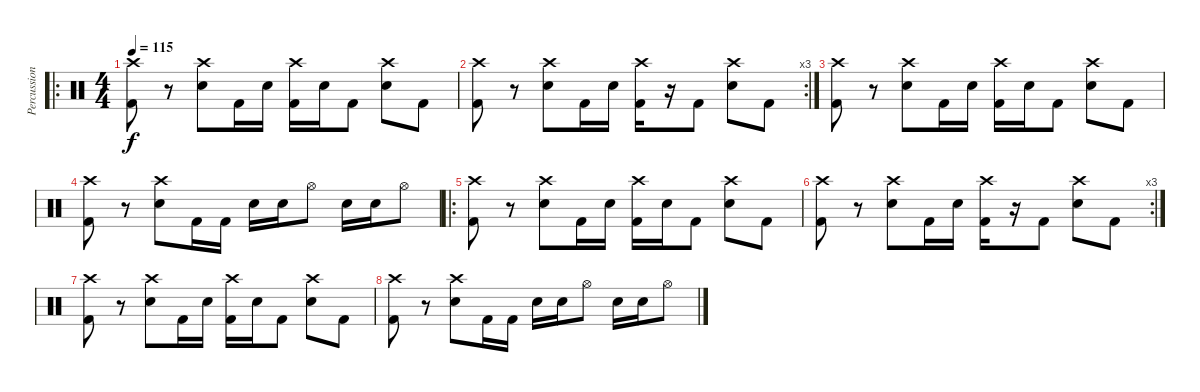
\track ("Percussions" "Percussion") {instrument percussion}
\staff {score}
\articulation defaults
\ro
\ts (4 4)
\tempo 115
\clef neutral
\ks c
("Crash high (hit)" "Kick (hit) 2").8{dy f} r.8 ("Crash high (hit)" "Snare (hit) 2").8 "Kick (hit) 2".16 "Snare (hit) 2".16 ("Crash high (hit)" "Kick (hit) 2").16 "Snare (hit) 2".16 "Kick (hit) 2".8 ("Crash high (hit)" "Snare (hit) 2").8 "Kick (hit) 2".8 |
\rc 3
("Crash high (hit)" "Kick (hit) 2").8 r.8 ("Crash high (hit)" "Snare (hit) 2").8 "Kick (hit) 2".16 "Snare (hit) 2".16 ("Crash high (hit)" "Kick (hit) 2").16 r.16 "Kick (hit) 2".8 ("Crash high (hit)" "Snare (hit) 2").8 "Kick (hit) 2".8 |
("Crash high (hit)" "Kick (hit) 2").8 r.8 ("Crash high (hit)" "Snare (hit) 2").8 "Kick (hit) 2".16 "Snare (hit) 2".16 ("Crash high (hit)" "Kick (hit) 2").16 "Snare (hit) 2".16 "Kick (hit) 2".8 ("Crash high (hit)" "Snare (hit) 2").8 "Kick (hit) 2".8 |
("Crash high (hit)" "Kick (hit) 2").8 r.8 ("Crash high (hit)" "Snare (hit) 2").8 "Kick (hit) 2".16 "Kick (hit) 2".16 "Snare (hit) 2".16 "Snare (hit) 2".16 "Hi-Hat (open)".8 "Snare (hit) 2".16 "Snare (hit) 2".16 "Hi-Hat (open)".8 |
\ro
("Crash high (hit)" "Kick (hit) 2").8 r.8 ("Crash high (hit)" "Snare (hit) 2").8 "Kick (hit) 2".16 "Snare (hit) 2".16 ("Crash high (hit)" "Kick (hit) 2").16 "Snare (hit) 2".16 "Kick (hit) 2".8 ("Crash high (hit)" "Snare (hit) 2").8 "Kick (hit) 2".8 |
\rc 3
("Crash high (hit)" "Kick (hit) 2").8 r.8 ("Crash high (hit)" "Snare (hit) 2").8 "Kick (hit) 2".16 "Snare (hit) 2".16 ("Crash high (hit)" "Kick (hit) 2").16 r.16 "Kick (hit) 2".8 ("Crash high (hit)" "Snare (hit) 2").8 "Kick (hit) 2".8 |
("Crash high (hit)" "Kick (hit) 2").8 r.8 ("Crash high (hit)" "Snare (hit) 2").8 "Kick (hit) 2".16 "Snare (hit) 2".16 ("Crash high (hit)" "Kick (hit) 2").16 "Snare (hit) 2".16 "Kick (hit) 2".8 ("Crash high (hit)" "Snare (hit) 2").8 "Kick (hit) 2".8 |
("Crash high (hit)" "Kick (hit) 2").8 r.8 ("Crash high (hit)" "Snare (hit) 2").8 "Kick (hit) 2".16 "Kick (hit) 2".16 "Snare (hit) 2".16 "Snare (hit) 2".16 "Hi-Hat (open)".8 "Snare (hit) 2".16 "Snare (hit) 2".16 "Hi-Hat (open)".8
